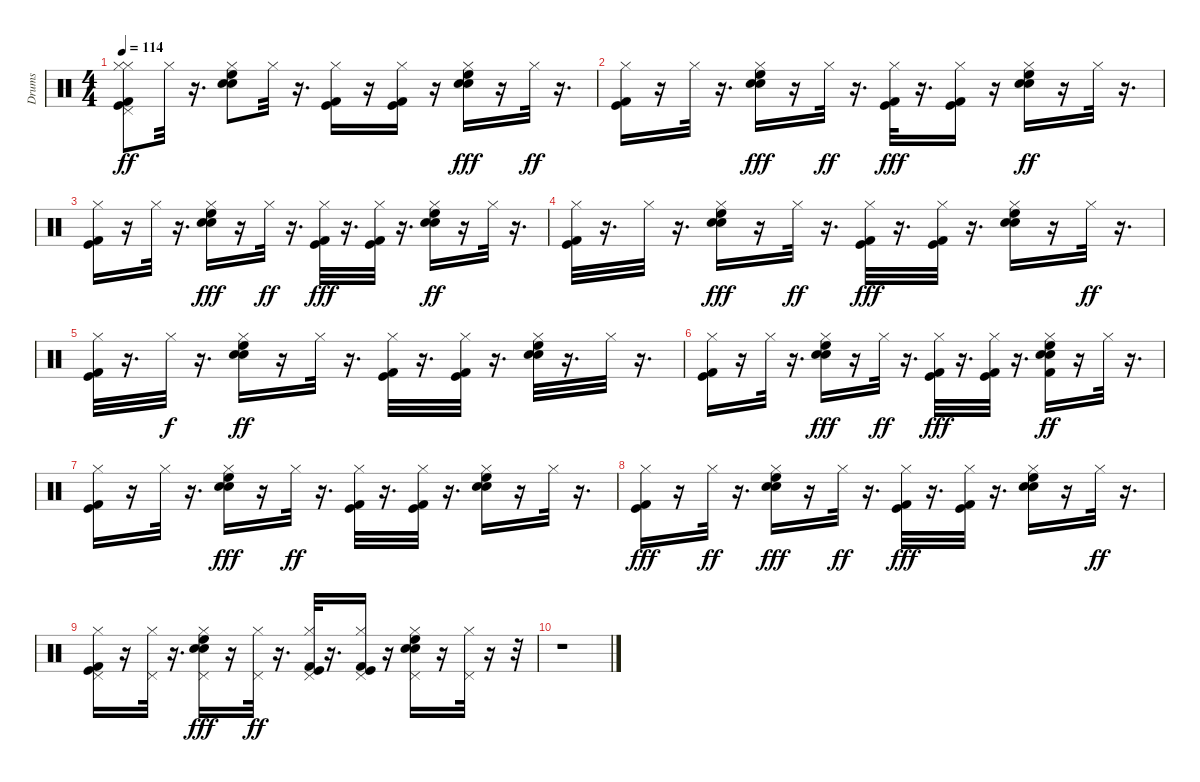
\track ("Drums" "Drums") {instrument percussion}
\staff {score}
\articulation defaults
\ts (4 4)
\tempo 114
\clef neutral
\ks c
("Kick (hit) 2" "Kick (hit)" "Hi-Hat (closed)" "Pedal Hi-Hat (hit)" "Hi-Hat (closed)").8{dy ff} "Hi-Hat (closed)".32{volume 11} r.16{d} ("Electric Snare (hit)" "High Floor Tom (hit)" "Snare (hit) 2" "Hi-Hat (closed)").8{volume 11} "Hi-Hat (closed)".32{volume 10} r.16{d} ("Kick (hit) 2" "Kick (hit)" "Hi-Hat (closed)").16{volume 10} r.16 ("Kick (hit)" "Kick (hit) 2" "Hi-Hat (closed)").16{volume 9} r.16 ("Electric Snare (hit)" "Hi-Hat (closed)" "Snare (hit) 2" "High Floor Tom (hit)").16{dy fff} r.16 "Hi-Hat (closed)".32{dy ff volume 9} r.16{d} |
("Kick (hit)" "Kick (hit) 2" "Hi-Hat (closed)").16{volume 9} r.16 "Hi-Hat (closed)".32{volume 8} r.16{d} ("Electric Snare (hit)" "Hi-Hat (closed)" "High Floor Tom (hit)" "Snare (hit) 2").16{dy fff volume 8} r.16 "Hi-Hat (closed)".32{dy ff} r.16{d} ("Hi-Hat (closed)" "Kick (hit) 2" "Kick (hit)").32{dy fff} r.16{d} ("Hi-Hat (closed)" "Kick (hit) 2" "Kick (hit)").16{volume 8} r.16 ("High Floor Tom (hit)" "Snare (hit) 2" "Electric Snare (hit)" "Hi-Hat (closed)").16{dy ff} r.16 "Hi-Hat (closed)".32 r.16{d} |
("Kick (hit) 2" "Kick (hit)" "Hi-Hat (closed)").16 r.16 "Hi-Hat (closed)".32 r.16{d} ("Electric Snare (hit)" "High Floor Tom (hit)" "Hi-Hat (closed)" "Snare (hit) 2").16{dy fff volume 8} r.16 "Hi-Hat (closed)".32{dy ff volume 7} r.16{d} ("Kick (hit) 2" "Hi-Hat (closed)" "Kick (hit)").32{dy fff} r.16{d} ("Kick (hit) 2" "Hi-Hat (closed)" "Kick (hit)").32 r.16{d} ("High Floor Tom (hit)" "Snare (hit) 2" "Electric Snare (hit)" "Hi-Hat (closed)").16{dy ff volume 7} r.16 "Hi-Hat (closed)".32{volume 6} r.16{d} |
("Kick (hit)" "Kick (hit) 2" "Hi-Hat (closed)").32 r.16{d} "Hi-Hat (closed)".32 r.16{d} ("Hi-Hat (closed)" "Electric Snare (hit)" "Snare (hit) 2" "High Floor Tom (hit)").16{dy fff} r.16 "Hi-Hat (closed)".32{dy ff volume 6} r.16{d} ("Hi-Hat (closed)" "Kick (hit) 2" "Kick (hit)").32{dy fff volume 6} r.16{d} ("Hi-Hat (closed)" "Kick (hit)" "Kick (hit) 2").32{volume 6} r.16{d} ("High Floor Tom (hit)" "Snare (hit) 2" "Hi-Hat (closed)" "Electric Snare (hit)").16{volume 6} r.16 "Hi-Hat (closed)".32{dy ff volume 6} r.16{d} |
("Kick (hit)" "Kick (hit) 2" "Hi-Hat (closed)").32{volume 5} r.16{d} "Hi-Hat (closed)".32{dy f} r.16{d} ("Electric Snare (hit)" "High Floor Tom (hit)" "Snare (hit) 2" "Hi-Hat (closed)").16{dy ff volume 5} r.16 "Hi-Hat (closed)".32{volume 5} r.16{d} ("Kick (hit) 2" "Kick (hit)" "Hi-Hat (closed)").32{volume 5} r.16{d} ("Kick (hit) 2" "Kick (hit)" "Hi-Hat (closed)").32{volume 4} r.16{d} ("High Floor Tom (hit)" "Snare (hit) 2" "Electric Snare (hit)" "Hi-Hat (closed)").32 r.16{d} "Hi-Hat (closed)".32{volume 4} r.16{d} |
("Kick (hit) 2" "Kick (hit)" "Hi-Hat (closed)").16{volume 4} r.16 "Hi-Hat (closed)".32{volume 3} r.16{d} ("Electric Snare (hit)" "Hi-Hat (closed)" "Snare (hit) 2" "High Floor Tom (hit)").16{dy fff volume 3} r.16 "Hi-Hat (closed)".32{dy ff} r.16{d} ("Kick (hit) 2" "Hi-Hat (closed)" "Kick (hit)").32{dy fff volume 3} r.16{d} ("Kick (hit) 2" "Hi-Hat (closed)" "Kick (hit)").32{volume 2} r.16{d} ("Kick (hit) 2" "Snare (hit) 2" "Electric Snare (hit)" "High Floor Tom (hit)" "Hi-Hat (closed)").16{dy ff} r.16 "Hi-Hat (closed)".32{volume 2} r.16{d} |
("Kick (hit)" "Kick (hit) 2" "Hi-Hat (closed)").16 r.16 "Hi-Hat (closed)".32 r.16{d} ("Electric Snare (hit)" "High Floor Tom (hit)" "Hi-Hat (closed)" "Snare (hit) 2").16{dy fff volume 2} r.16 "Hi-Hat (closed)".32{dy ff} r.16{d} ("Kick (hit) 2" "Kick (hit)" "Hi-Hat (closed)").32{volume 2} r.16{d} ("Kick (hit) 2" "Kick (hit)" "Hi-Hat (closed)").32 r.16{d} ("Electric Snare (hit)" "Snare (hit) 2" "High Floor Tom (hit)" "Hi-Hat (closed)").16 r.16 "Hi-Hat (closed)".32{volume 1} r.16{d} |
("Hi-Hat (closed)" "Kick (hit)" "Kick (hit) 2").16{dy fff volume 1} r.16 "Hi-Hat (closed)".32{dy ff volume 1} r.16{d} ("Electric Snare (hit)" "Snare (hit) 2" "Hi-Hat (closed)" "High Floor Tom (hit)").16{dy fff volume 0} r.16 "Hi-Hat (closed)".32{dy ff volume 0} r.16{d} ("Kick (hit) 2" "Hi-Hat (closed)" "Kick (hit)").32{dy fff} r.16{d} ("Kick (hit) 2" "Hi-Hat (closed)" "Kick (hit)").32 r.16{d} ("High Floor Tom (hit)" "Snare (hit) 2" "Electric Snare (hit)" "Hi-Hat (closed)").16 r.16 "Hi-Hat (closed)".32{dy ff} r.16{d} |
("Kick (hit)" "Kick (hit) 2" "Pedal Hi-Hat (hit)" "Hi-Hat (closed)").16 r.16 ("Pedal Hi-Hat (hit)" "Hi-Hat (closed)").32 r.16{d} ("Electric Snare (hit)" "Pedal Hi-Hat (hit)" "Hi-Hat (closed)" "High Floor Tom (hit)" "Snare (hit) 2").16{dy fff} r.16 ("Pedal Hi-Hat (hit)" "Hi-Hat (closed)").32{dy ff} r.16{d} ("Kick (hit)" "Kick (hit) 2" "Pedal Hi-Hat (hit)" "Hi-Hat (closed)").32 r.16{d} ("Kick (hit) 2" "Kick (hit)" "Pedal Hi-Hat (hit)" "Hi-Hat (closed)").16 r.16 ("Snare (hit) 2" "Electric Snare (hit)" "High Floor Tom (hit)" "Pedal Hi-Hat (hit)" "Hi-Hat (closed)").16 r.16 ("Pedal Hi-Hat (hit)" "Hi-Hat (closed)").32 r.16 r.32 |
r.1
